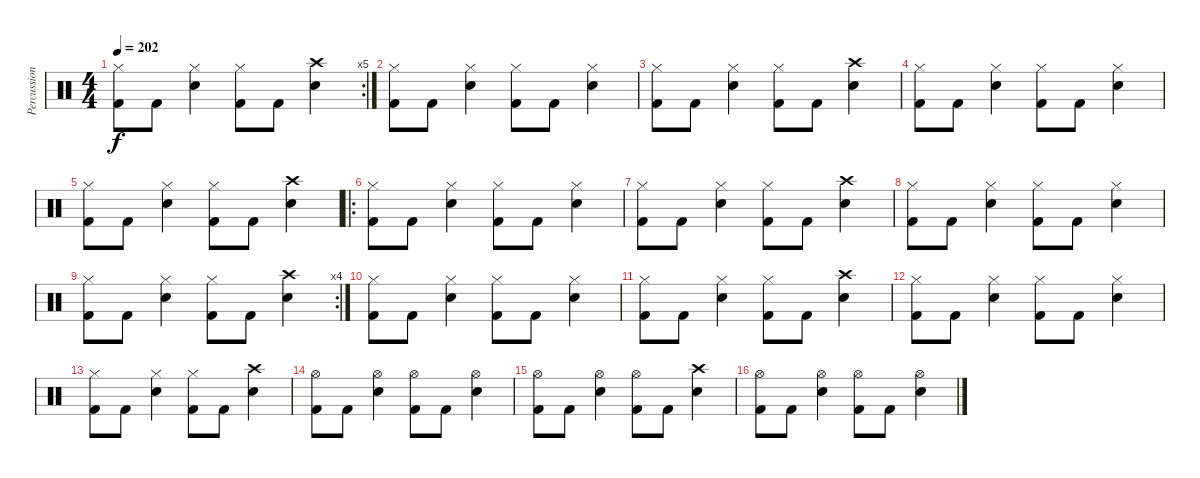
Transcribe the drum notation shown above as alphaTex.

\track ("Percussion" "Percussion") {instrument percussion}
\staff {score}
\articulation defaults
\rc 5
\ts (4 4)
\tempo 202
\clef neutral
\ks c
("Hi-Hat (closed)" "Kick (hit) 2").8{dy f} "Kick (hit) 2".8 ("Hi-Hat (closed)" "Electric Snare (hit)").4 ("Hi-Hat (closed)" "Kick (hit) 2").8 "Kick (hit) 2".8 ("Crash high (hit)" "Electric Snare (hit)").4 |
("Hi-Hat (closed)" "Kick (hit) 2").8 "Kick (hit) 2".8 ("Hi-Hat (closed)" "Electric Snare (hit)").4 ("Hi-Hat (closed)" "Kick (hit) 2").8 "Kick (hit) 2".8 ("Hi-Hat (closed)" "Electric Snare (hit)").4 |
("Hi-Hat (closed)" "Kick (hit) 2").8 "Kick (hit) 2".8 ("Hi-Hat (closed)" "Electric Snare (hit)").4 ("Hi-Hat (closed)" "Kick (hit) 2").8 "Kick (hit) 2".8 ("Crash high (hit)" "Electric Snare (hit)").4 |
("Hi-Hat (closed)" "Kick (hit) 2").8 "Kick (hit) 2".8 ("Hi-Hat (closed)" "Electric Snare (hit)").4 ("Hi-Hat (closed)" "Kick (hit) 2").8 "Kick (hit) 2".8 ("Hi-Hat (closed)" "Electric Snare (hit)").4 |
("Hi-Hat (closed)" "Kick (hit) 2").8 "Kick (hit) 2".8 ("Hi-Hat (closed)" "Electric Snare (hit)").4 ("Hi-Hat (closed)" "Kick (hit) 2").8 "Kick (hit) 2".8 ("Crash high (hit)" "Electric Snare (hit)").4 |
\ro
("Hi-Hat (closed)" "Kick (hit) 2").8 "Kick (hit) 2".8 ("Hi-Hat (closed)" "Electric Snare (hit)").4 ("Hi-Hat (closed)" "Kick (hit) 2").8 "Kick (hit) 2".8 ("Hi-Hat (closed)" "Electric Snare (hit)").4 |
("Hi-Hat (closed)" "Kick (hit) 2").8 "Kick (hit) 2".8 ("Hi-Hat (closed)" "Electric Snare (hit)").4 ("Hi-Hat (closed)" "Kick (hit) 2").8 "Kick (hit) 2".8 ("Crash high (hit)" "Electric Snare (hit)").4 |
("Hi-Hat (closed)" "Kick (hit) 2").8 "Kick (hit) 2".8 ("Hi-Hat (closed)" "Electric Snare (hit)").4 ("Hi-Hat (closed)" "Kick (hit) 2").8 "Kick (hit) 2".8 ("Hi-Hat (closed)" "Electric Snare (hit)").4 |
\rc 4
("Hi-Hat (closed)" "Kick (hit) 2").8 "Kick (hit) 2".8 ("Hi-Hat (closed)" "Electric Snare (hit)").4 ("Hi-Hat (closed)" "Kick (hit) 2").8 "Kick (hit) 2".8 ("Crash high (hit)" "Electric Snare (hit)").4 |
("Hi-Hat (closed)" "Kick (hit) 2").8 "Kick (hit) 2".8 ("Hi-Hat (closed)" "Electric Snare (hit)").4 ("Hi-Hat (closed)" "Kick (hit) 2").8 "Kick (hit) 2".8 ("Hi-Hat (closed)" "Electric Snare (hit)").4 |
("Hi-Hat (closed)" "Kick (hit) 2").8 "Kick (hit) 2".8 ("Hi-Hat (closed)" "Electric Snare (hit)").4 ("Hi-Hat (closed)" "Kick (hit) 2").8 "Kick (hit) 2".8 ("Crash high (hit)" "Electric Snare (hit)").4 |
("Hi-Hat (closed)" "Kick (hit) 2").8 "Kick (hit) 2".8 ("Hi-Hat (closed)" "Electric Snare (hit)").4 ("Hi-Hat (closed)" "Kick (hit) 2").8 "Kick (hit) 2".8 ("Hi-Hat (closed)" "Electric Snare (hit)").4 |
("Hi-Hat (closed)" "Kick (hit) 2").8 "Kick (hit) 2".8 ("Hi-Hat (closed)" "Electric Snare (hit)").4 ("Hi-Hat (closed)" "Kick (hit) 2").8 "Kick (hit) 2".8 ("Crash high (hit)" "Electric Snare (hit)").4 |
("Hi-Hat (open)" "Kick (hit) 2").8 "Kick (hit) 2".8 ("Hi-Hat (open)" "Electric Snare (hit)").4 ("Hi-Hat (open)" "Kick (hit) 2").8 "Kick (hit) 2".8 ("Hi-Hat (open)" "Electric Snare (hit)").4 |
("Hi-Hat (open)" "Kick (hit) 2").8 "Kick (hit) 2".8 ("Hi-Hat (open)" "Electric Snare (hit)").4 ("Hi-Hat (open)" "Kick (hit) 2").8 "Kick (hit) 2".8 ("Crash high (hit)" "Electric Snare (hit)").4 |
("Hi-Hat (open)" "Kick (hit) 2").8 "Kick (hit) 2".8 ("Hi-Hat (open)" "Electric Snare (hit)").4 ("Hi-Hat (open)" "Kick (hit) 2").8 "Kick (hit) 2".8 ("Hi-Hat (open)" "Electric Snare (hit)").4
